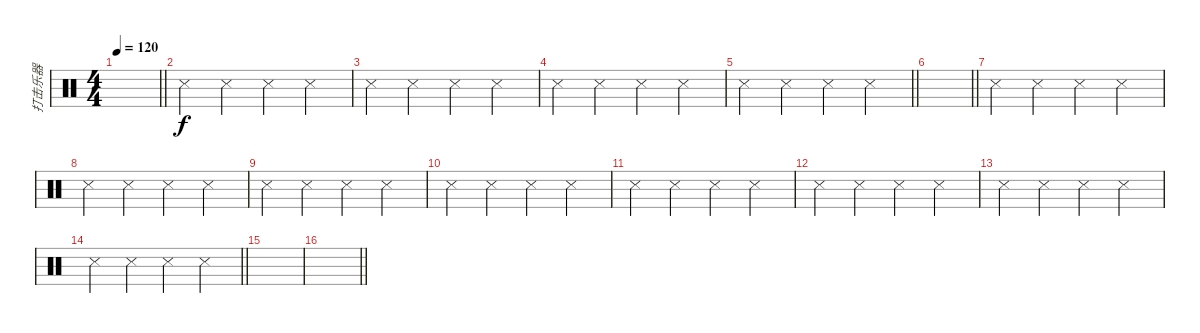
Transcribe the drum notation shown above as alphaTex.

\track ("打击乐器" "打击乐器") {instrument percussion}
\staff {score}
\articulation defaults
\ts (4 4)
\tempo 120
\clef neutral
\barLineRight lightlight
\ks c
|
"Snare (side stick) 3".4 "Snare (side stick) 3".4 "Snare (side stick) 3".4 "Snare (side stick) 3".4 |
"Snare (side stick) 3".4 "Snare (side stick) 3".4 "Snare (side stick) 3".4 "Snare (side stick) 3".4 |
"Snare (side stick) 3".4 "Snare (side stick) 3".4 "Snare (side stick) 3".4 "Snare (side stick) 3".4 |
\barLineRight lightlight "Snare (side stick) 3".4 "Snare (side stick) 3".4 "Snare (side stick) 3".4 "Snare (side stick) 3".4
|
\barLineRight lightlight
|
"Snare (side stick) 3".4 "Snare (side stick) 3".4 "Snare (side stick) 3".4 "Snare (side stick) 3".4 |
"Snare (side stick) 3".4 "Snare (side stick) 3".4 "Snare (side stick) 3".4 "Snare (side stick) 3".4 |
"Snare (side stick) 3".4 "Snare (side stick) 3".4 "Snare (side stick) 3".4 "Snare (side stick) 3".4 |
"Snare (side stick) 3".4 "Snare (side stick) 3".4 "Snare (side stick) 3".4 "Snare (side stick) 3".4 |
"Snare (side stick) 3".4 "Snare (side stick) 3".4 "Snare (side stick) 3".4 "Snare (side stick) 3".4 |
"Snare (side stick) 3".4 "Snare (side stick) 3".4 "Snare (side stick) 3".4 "Snare (side stick) 3".4 |
"Snare (side stick) 3".4 "Snare (side stick) 3".4 "Snare (side stick) 3".4 "Snare (side stick) 3".4 |
\barLineRight lightlight "Snare (side stick) 3".4 "Snare (side stick) 3".4 "Snare (side stick) 3".4 "Snare (side stick) 3".4
|
|
\barLineRight lightlight
